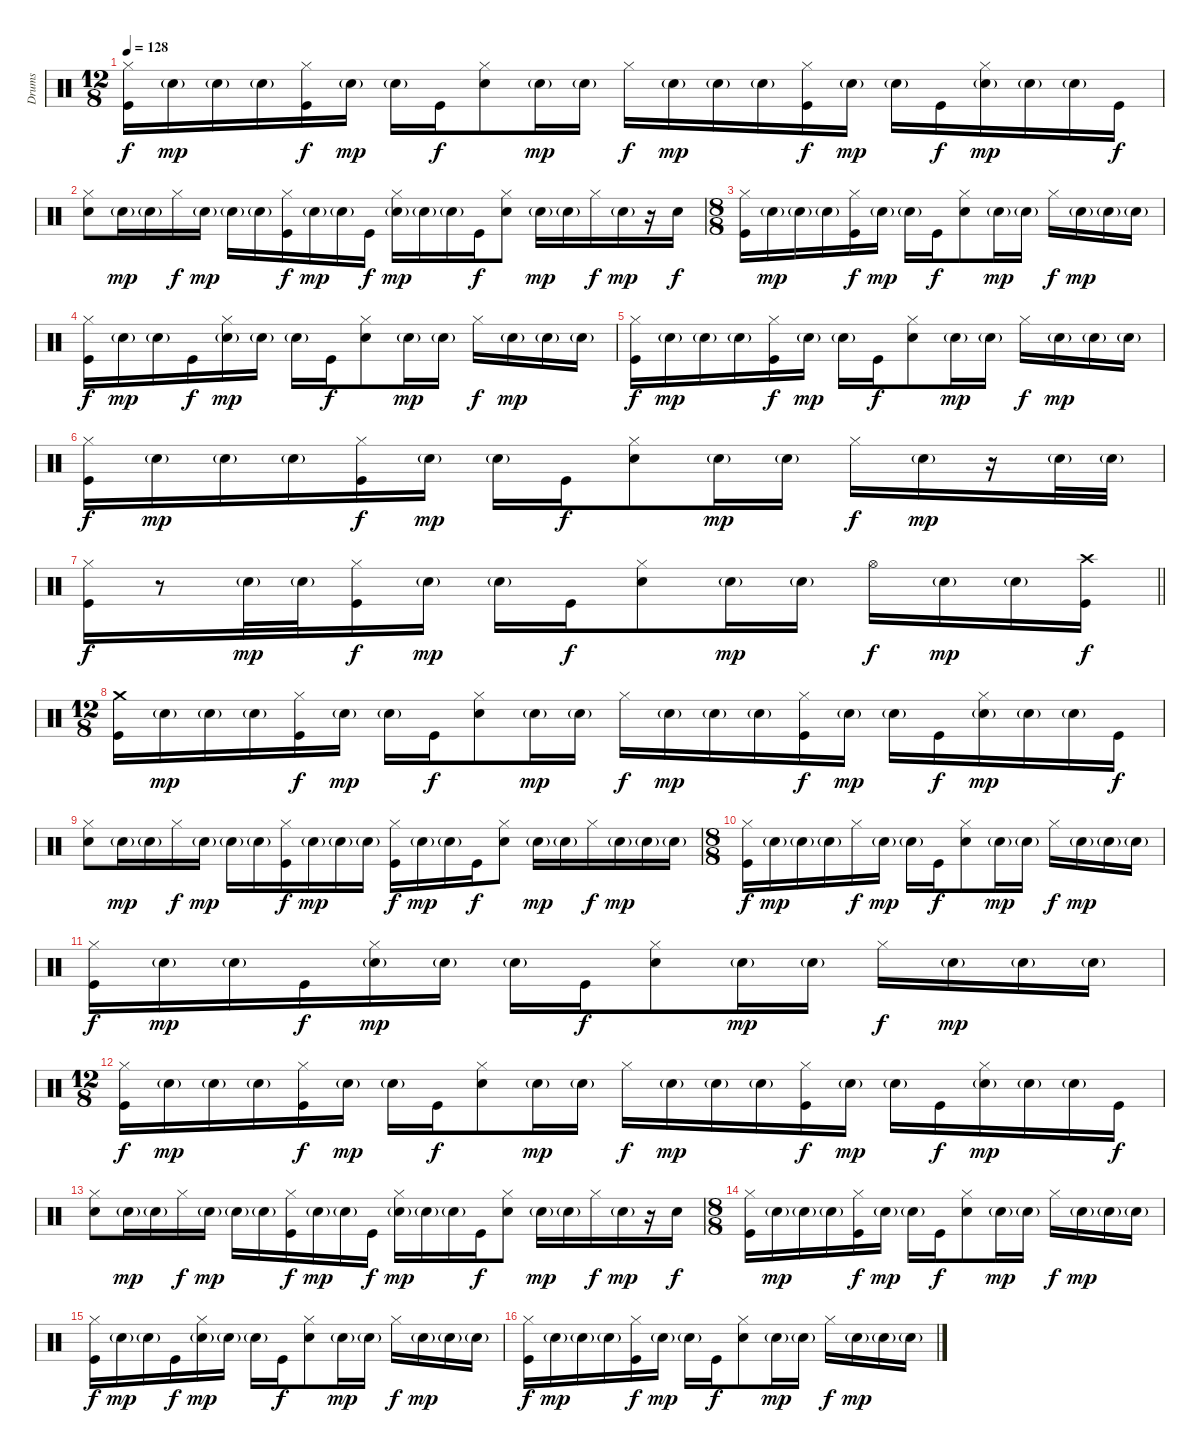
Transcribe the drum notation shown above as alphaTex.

\track ("Drums" "Drums") {instrument percussion}
\staff {score}
\articulation defaults
\ts (12 8)
\tempo 128
\clef neutral
\ks c
("Kick (hit)" "Hi-Hat (closed)").16{dy f} "Electric Snare (hit)"{g}.16{dy mp} "Electric Snare (hit)"{g}.16 "Electric Snare (hit)"{g}.16 ("Kick (hit)" "Hi-Hat (closed)").16{dy f} "Electric Snare (hit)"{g}.16{dy mp} "Electric Snare (hit)"{g}.16 "Kick (hit)".16{dy f} ("Electric Snare (hit)" "Hi-Hat (closed)").8 "Electric Snare (hit)"{g}.16{dy mp} "Electric Snare (hit)"{g}.16 "Hi-Hat (closed)".16{dy f} "Electric Snare (hit)"{g}.16{dy mp} "Electric Snare (hit)"{g}.16 "Electric Snare (hit)"{g}.16 ("Kick (hit)" "Hi-Hat (closed)").16{dy f} "Electric Snare (hit)"{g}.16{dy mp} "Electric Snare (hit)"{g}.16 "Kick (hit)".16{dy f} ("Electric Snare (hit)"{g} "Hi-Hat (closed)").16{dy mp} "Electric Snare (hit)"{g}.16 "Electric Snare (hit)"{g}.16 "Kick (hit)".16{dy f} |
("Electric Snare (hit)" "Hi-Hat (closed)").8 "Electric Snare (hit)"{g}.16{dy mp} "Electric Snare (hit)"{g}.16 "Hi-Hat (closed)".16{dy f} "Electric Snare (hit)"{g}.16{dy mp} "Electric Snare (hit)"{g}.16 "Electric Snare (hit)"{g}.16 ("Kick (hit)" "Hi-Hat (closed)").16{dy f} "Electric Snare (hit)"{g}.16{dy mp} "Electric Snare (hit)"{g}.16 "Kick (hit)".16{dy f} ("Electric Snare (hit)"{g} "Hi-Hat (closed)").16{dy mp} "Electric Snare (hit)"{g}.16 "Electric Snare (hit)"{g}.16 "Kick (hit)".16{dy f} ("Electric Snare (hit)" "Hi-Hat (closed)").8 "Electric Snare (hit)"{g}.16{dy mp} "Electric Snare (hit)"{g}.16 "Hi-Hat (closed)".16{dy f} "Electric Snare (hit)"{g}.16{dy mp} r.16 "Electric Snare (hit)".16{dy f} |
\ts (8 8)
("Kick (hit)" "Hi-Hat (closed)").16 "Electric Snare (hit)"{g}.16{dy mp} "Electric Snare (hit)"{g}.16 "Electric Snare (hit)"{g}.16 ("Kick (hit)" "Hi-Hat (closed)").16{dy f} "Electric Snare (hit)"{g}.16{dy mp} "Electric Snare (hit)"{g}.16 "Kick (hit)".16{dy f} ("Electric Snare (hit)" "Hi-Hat (closed)").8 "Electric Snare (hit)"{g}.16{dy mp} "Electric Snare (hit)"{g}.16 "Hi-Hat (closed)".16{dy f} "Electric Snare (hit)"{g}.16{dy mp} "Electric Snare (hit)"{g}.16 "Electric Snare (hit)"{g}.16 |
("Kick (hit)" "Hi-Hat (closed)").16{dy f} "Electric Snare (hit)"{g}.16{dy mp} "Electric Snare (hit)"{g}.16 "Kick (hit)".16{dy f} ("Electric Snare (hit)"{g} "Hi-Hat (closed)").16{dy mp} "Electric Snare (hit)"{g}.16 "Electric Snare (hit)"{g}.16 "Kick (hit)".16{dy f} ("Electric Snare (hit)" "Hi-Hat (closed)").8 "Electric Snare (hit)"{g}.16{dy mp} "Electric Snare (hit)"{g}.16 "Hi-Hat (closed)".16{dy f} "Electric Snare (hit)"{g}.16{dy mp} "Electric Snare (hit)"{g}.16 "Electric Snare (hit)"{g}.16 |
("Kick (hit)" "Hi-Hat (closed)").16{dy f} "Electric Snare (hit)"{g}.16{dy mp} "Electric Snare (hit)"{g}.16 "Electric Snare (hit)"{g}.16 ("Kick (hit)" "Hi-Hat (closed)").16{dy f} "Electric Snare (hit)"{g}.16{dy mp} "Electric Snare (hit)"{g}.16 "Kick (hit)".16{dy f} ("Electric Snare (hit)" "Hi-Hat (closed)").8 "Electric Snare (hit)"{g}.16{dy mp} "Electric Snare (hit)"{g}.16 "Hi-Hat (closed)".16{dy f} "Electric Snare (hit)"{g}.16{dy mp} "Electric Snare (hit)"{g}.16 "Electric Snare (hit)"{g}.16 |
("Kick (hit)" "Hi-Hat (closed)").16{dy f} "Electric Snare (hit)"{g}.16{dy mp} "Electric Snare (hit)"{g}.16 "Electric Snare (hit)"{g}.16 ("Kick (hit)" "Hi-Hat (closed)").16{dy f} "Electric Snare (hit)"{g}.16{dy mp} "Electric Snare (hit)"{g}.16 "Kick (hit)".16{dy f} ("Electric Snare (hit)" "Hi-Hat (closed)").8 "Electric Snare (hit)"{g}.16{dy mp} "Electric Snare (hit)"{g}.16 "Hi-Hat (closed)".16{dy f} "Electric Snare (hit)"{g}.16{dy mp} r.16 "Electric Snare (hit)"{g}.32 "Electric Snare (hit)"{g}.32 |
\barLineRight lightlight
("Kick (hit)" "Hi-Hat (closed)").16{dy f} r.8 "Electric Snare (hit)"{g}.32{dy mp} "Electric Snare (hit)"{g}.32 ("Kick (hit)" "Hi-Hat (closed)").16{dy f} "Electric Snare (hit)"{g}.16{dy mp} "Electric Snare (hit)"{g}.16 "Kick (hit)".16{dy f} ("Electric Snare (hit)" "Hi-Hat (closed)").8 "Electric Snare (hit)"{g}.16{dy mp} "Electric Snare (hit)"{g}.16 "Hi-Hat (open)".16{dy f} "Electric Snare (hit)"{g}.16{dy mp} "Electric Snare (hit)"{g}.16 ("Kick (hit)" "Crash high (hit)").16{dy f} |
\ts (12 8)
("Kick (hit)" "Crash medium (hit)").16 "Electric Snare (hit)"{g}.16{dy mp} "Electric Snare (hit)"{g}.16 "Electric Snare (hit)"{g}.16 ("Kick (hit)" "Hi-Hat (closed)").16{dy f} "Electric Snare (hit)"{g}.16{dy mp} "Electric Snare (hit)"{g}.16 "Kick (hit)".16{dy f} ("Electric Snare (hit)" "Hi-Hat (closed)").8 "Electric Snare (hit)"{g}.16{dy mp} "Electric Snare (hit)"{g}.16 "Hi-Hat (closed)".16{dy f} "Electric Snare (hit)"{g}.16{dy mp} "Electric Snare (hit)"{g}.16 "Electric Snare (hit)"{g}.16 ("Kick (hit)" "Hi-Hat (closed)").16{dy f} "Electric Snare (hit)"{g}.16{dy mp} "Electric Snare (hit)"{g}.16 "Kick (hit)".16{dy f} ("Electric Snare (hit)"{g} "Hi-Hat (closed)").16{dy mp} "Electric Snare (hit)"{g}.16 "Electric Snare (hit)"{g}.16 "Kick (hit)".16{dy f} |
("Electric Snare (hit)" "Hi-Hat (closed)").8 "Electric Snare (hit)"{g}.16{dy mp} "Electric Snare (hit)"{g}.16 "Hi-Hat (closed)".16{dy f} "Electric Snare (hit)"{g}.16{dy mp} "Electric Snare (hit)"{g}.16 "Electric Snare (hit)"{g}.16 ("Kick (hit)" "Hi-Hat (closed)").16{dy f} "Electric Snare (hit)"{g}.16{dy mp} "Electric Snare (hit)"{g}.16 "Electric Snare (hit)"{g}.16 ("Kick (hit)" "Hi-Hat (closed)").16{dy f} "Electric Snare (hit)"{g}.16{dy mp} "Electric Snare (hit)"{g}.16 "Kick (hit)".16{dy f} ("Electric Snare (hit)" "Hi-Hat (closed)").8 "Electric Snare (hit)"{g}.16{dy mp} "Electric Snare (hit)"{g}.16 "Hi-Hat (closed)".16{dy f} "Electric Snare (hit)"{g}.16{dy mp} "Electric Snare (hit)"{g}.16 "Electric Snare (hit)"{g}.16 |
\ts (8 8)
("Kick (hit)" "Hi-Hat (closed)").16{dy f} "Electric Snare (hit)"{g}.16{dy mp} "Electric Snare (hit)"{g}.16 "Electric Snare (hit)"{g}.16 "Hi-Hat (closed)".16{dy f} "Electric Snare (hit)"{g}.16{dy mp} "Electric Snare (hit)"{g}.16 "Kick (hit)".16{dy f} ("Electric Snare (hit)" "Hi-Hat (closed)").8 "Electric Snare (hit)"{g}.16{dy mp} "Electric Snare (hit)"{g}.16 "Hi-Hat (closed)".16{dy f} "Electric Snare (hit)"{g}.16{dy mp} "Electric Snare (hit)"{g}.16 "Electric Snare (hit)"{g}.16 |
("Kick (hit)" "Hi-Hat (closed)").16{dy f} "Electric Snare (hit)"{g}.16{dy mp} "Electric Snare (hit)"{g}.16 "Kick (hit)".16{dy f} ("Electric Snare (hit)"{g} "Hi-Hat (closed)").16{dy mp} "Electric Snare (hit)"{g}.16 "Electric Snare (hit)"{g}.16 "Kick (hit)".16{dy f} ("Electric Snare (hit)" "Hi-Hat (closed)").8 "Electric Snare (hit)"{g}.16{dy mp} "Electric Snare (hit)"{g}.16 "Hi-Hat (closed)".16{dy f} "Electric Snare (hit)"{g}.16{dy mp} "Electric Snare (hit)"{g}.16 "Electric Snare (hit)"{g}.16 |
\ts (12 8)
("Kick (hit)" "Hi-Hat (closed)").16{dy f} "Electric Snare (hit)"{g}.16{dy mp} "Electric Snare (hit)"{g}.16 "Electric Snare (hit)"{g}.16 ("Kick (hit)" "Hi-Hat (closed)").16{dy f} "Electric Snare (hit)"{g}.16{dy mp} "Electric Snare (hit)"{g}.16 "Kick (hit)".16{dy f} ("Electric Snare (hit)" "Hi-Hat (closed)").8 "Electric Snare (hit)"{g}.16{dy mp} "Electric Snare (hit)"{g}.16 "Hi-Hat (closed)".16{dy f} "Electric Snare (hit)"{g}.16{dy mp} "Electric Snare (hit)"{g}.16 "Electric Snare (hit)"{g}.16 ("Kick (hit)" "Hi-Hat (closed)").16{dy f} "Electric Snare (hit)"{g}.16{dy mp} "Electric Snare (hit)"{g}.16 "Kick (hit)".16{dy f} ("Electric Snare (hit)"{g} "Hi-Hat (closed)").16{dy mp} "Electric Snare (hit)"{g}.16 "Electric Snare (hit)"{g}.16 "Kick (hit)".16{dy f} |
("Electric Snare (hit)" "Hi-Hat (closed)").8 "Electric Snare (hit)"{g}.16{dy mp} "Electric Snare (hit)"{g}.16 "Hi-Hat (closed)".16{dy f} "Electric Snare (hit)"{g}.16{dy mp} "Electric Snare (hit)"{g}.16 "Electric Snare (hit)"{g}.16 ("Kick (hit)" "Hi-Hat (closed)").16{dy f} "Electric Snare (hit)"{g}.16{dy mp} "Electric Snare (hit)"{g}.16 "Kick (hit)".16{dy f} ("Electric Snare (hit)"{g} "Hi-Hat (closed)").16{dy mp} "Electric Snare (hit)"{g}.16 "Electric Snare (hit)"{g}.16 "Kick (hit)".16{dy f} ("Electric Snare (hit)" "Hi-Hat (closed)").8 "Electric Snare (hit)"{g}.16{dy mp} "Electric Snare (hit)"{g}.16 "Hi-Hat (closed)".16{dy f} "Electric Snare (hit)"{g}.16{dy mp} r.16 "Electric Snare (hit)".16{dy f} |
\ts (8 8)
("Kick (hit)" "Hi-Hat (closed)").16 "Electric Snare (hit)"{g}.16{dy mp} "Electric Snare (hit)"{g}.16 "Electric Snare (hit)"{g}.16 ("Kick (hit)" "Hi-Hat (closed)").16{dy f} "Electric Snare (hit)"{g}.16{dy mp} "Electric Snare (hit)"{g}.16 "Kick (hit)".16{dy f} ("Electric Snare (hit)" "Hi-Hat (closed)").8 "Electric Snare (hit)"{g}.16{dy mp} "Electric Snare (hit)"{g}.16 "Hi-Hat (closed)".16{dy f} "Electric Snare (hit)"{g}.16{dy mp} "Electric Snare (hit)"{g}.16 "Electric Snare (hit)"{g}.16 |
("Kick (hit)" "Hi-Hat (closed)").16{dy f} "Electric Snare (hit)"{g}.16{dy mp} "Electric Snare (hit)"{g}.16 "Kick (hit)".16{dy f} ("Electric Snare (hit)"{g} "Hi-Hat (closed)").16{dy mp} "Electric Snare (hit)"{g}.16 "Electric Snare (hit)"{g}.16 "Kick (hit)".16{dy f} ("Electric Snare (hit)" "Hi-Hat (closed)").8 "Electric Snare (hit)"{g}.16{dy mp} "Electric Snare (hit)"{g}.16 "Hi-Hat (closed)".16{dy f} "Electric Snare (hit)"{g}.16{dy mp} "Electric Snare (hit)"{g}.16 "Electric Snare (hit)"{g}.16 |
("Kick (hit)" "Hi-Hat (closed)").16{dy f} "Electric Snare (hit)"{g}.16{dy mp} "Electric Snare (hit)"{g}.16 "Electric Snare (hit)"{g}.16 ("Kick (hit)" "Hi-Hat (closed)").16{dy f} "Electric Snare (hit)"{g}.16{dy mp} "Electric Snare (hit)"{g}.16 "Kick (hit)".16{dy f} ("Electric Snare (hit)" "Hi-Hat (closed)").8 "Electric Snare (hit)"{g}.16{dy mp} "Electric Snare (hit)"{g}.16 "Hi-Hat (closed)".16{dy f} "Electric Snare (hit)"{g}.16{dy mp} "Electric Snare (hit)"{g}.16 "Electric Snare (hit)"{g}.16
